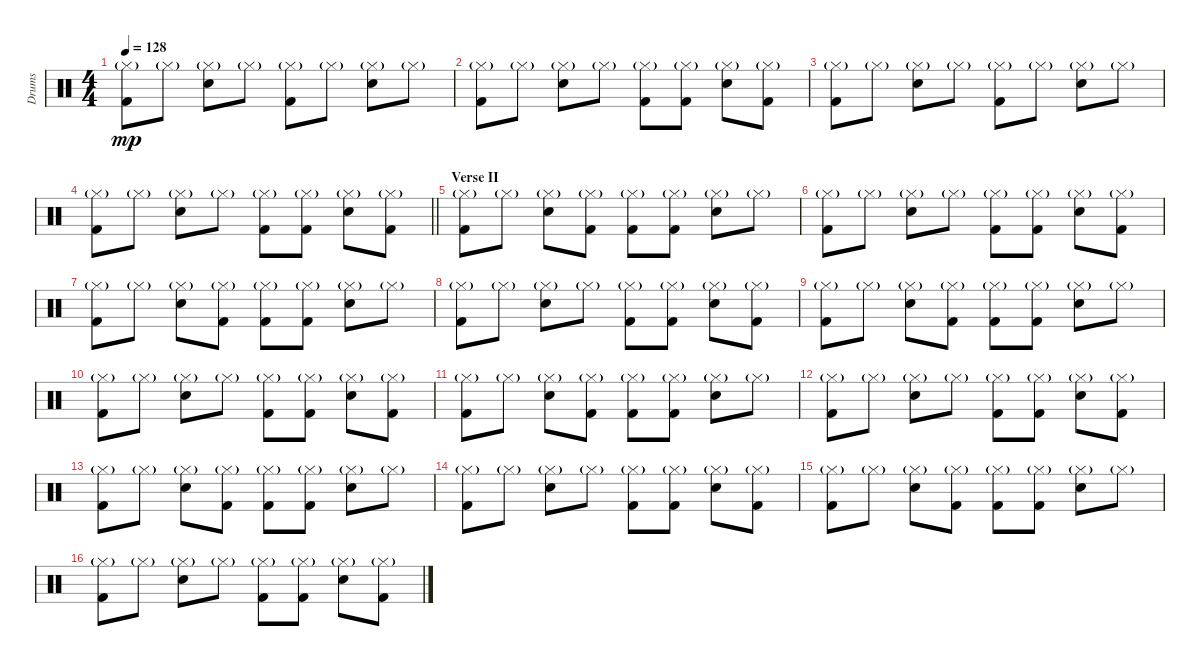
\track ("Drums" "Drums") {instrument percussion}
\staff {score}
\articulation defaults
\ts (4 4)
\tempo 128
\clef neutral
\ks c
("Kick (hit) 2" "Hi-Hat (closed)"{g}).8{dy mp} "Hi-Hat (closed)"{g}.8 ("Snare (hit) 2" "Hi-Hat (closed)"{g}).8 "Hi-Hat (closed)"{g}.8 ("Kick (hit) 2" "Hi-Hat (closed)"{g}).8 "Hi-Hat (closed)"{g}.8 ("Snare (hit) 2" "Hi-Hat (closed)"{g}).8 "Hi-Hat (closed)"{g}.8 |
("Kick (hit) 2" "Hi-Hat (closed)"{g}).8 "Hi-Hat (closed)"{g}.8 ("Snare (hit) 2" "Hi-Hat (closed)"{g}).8 "Hi-Hat (closed)"{g}.8 ("Kick (hit) 2" "Hi-Hat (closed)"{g}).8 ("Kick (hit) 2" "Hi-Hat (closed)"{g}).8 ("Snare (hit) 2" "Hi-Hat (closed)"{g}).8 ("Kick (hit) 2" "Hi-Hat (closed)"{g}).8 |
("Kick (hit) 2" "Hi-Hat (closed)"{g}).8 "Hi-Hat (closed)"{g}.8 ("Snare (hit) 2" "Hi-Hat (closed)"{g}).8 "Hi-Hat (closed)"{g}.8 ("Kick (hit) 2" "Hi-Hat (closed)"{g}).8 "Hi-Hat (closed)"{g}.8 ("Snare (hit) 2" "Hi-Hat (closed)"{g}).8 "Hi-Hat (closed)"{g}.8 |
\barLineRight lightlight
("Kick (hit) 2" "Hi-Hat (closed)"{g}).8 "Hi-Hat (closed)"{g}.8 ("Snare (hit) 2" "Hi-Hat (closed)"{g}).8 "Hi-Hat (closed)"{g}.8 ("Kick (hit) 2" "Hi-Hat (closed)"{g}).8 ("Kick (hit) 2" "Hi-Hat (closed)"{g}).8 ("Snare (hit) 2" "Hi-Hat (closed)"{g}).8 ("Kick (hit) 2" "Hi-Hat (closed)"{g}).8 |
\section ("" "Verse II")
("Kick (hit) 2" "Hi-Hat (closed)"{g}).8 "Hi-Hat (closed)"{g}.8 ("Snare (hit) 2" "Hi-Hat (closed)"{g}).8 ("Kick (hit) 2" "Hi-Hat (closed)"{g}).8 ("Kick (hit) 2" "Hi-Hat (closed)"{g}).8 ("Kick (hit) 2" "Hi-Hat (closed)"{g}).8 ("Snare (hit) 2" "Hi-Hat (closed)"{g}).8 "Hi-Hat (closed)"{g}.8 |
("Kick (hit) 2" "Hi-Hat (closed)"{g}).8 "Hi-Hat (closed)"{g}.8 ("Snare (hit) 2" "Hi-Hat (closed)"{g}).8 "Hi-Hat (closed)"{g}.8 ("Kick (hit) 2" "Hi-Hat (closed)"{g}).8 ("Kick (hit) 2" "Hi-Hat (closed)"{g}).8 ("Snare (hit) 2" "Hi-Hat (closed)"{g}).8 ("Kick (hit) 2" "Hi-Hat (closed)"{g}).8 |
("Kick (hit) 2" "Hi-Hat (closed)"{g}).8 "Hi-Hat (closed)"{g}.8 ("Snare (hit) 2" "Hi-Hat (closed)"{g}).8 ("Kick (hit) 2" "Hi-Hat (closed)"{g}).8 ("Kick (hit) 2" "Hi-Hat (closed)"{g}).8 ("Kick (hit) 2" "Hi-Hat (closed)"{g}).8 ("Snare (hit) 2" "Hi-Hat (closed)"{g}).8 "Hi-Hat (closed)"{g}.8 |
("Kick (hit) 2" "Hi-Hat (closed)"{g}).8 "Hi-Hat (closed)"{g}.8 ("Snare (hit) 2" "Hi-Hat (closed)"{g}).8 "Hi-Hat (closed)"{g}.8 ("Kick (hit) 2" "Hi-Hat (closed)"{g}).8 ("Kick (hit) 2" "Hi-Hat (closed)"{g}).8 ("Snare (hit) 2" "Hi-Hat (closed)"{g}).8 ("Kick (hit) 2" "Hi-Hat (closed)"{g}).8 |
("Kick (hit) 2" "Hi-Hat (closed)"{g}).8 "Hi-Hat (closed)"{g}.8 ("Snare (hit) 2" "Hi-Hat (closed)"{g}).8 ("Kick (hit) 2" "Hi-Hat (closed)"{g}).8 ("Kick (hit) 2" "Hi-Hat (closed)"{g}).8 ("Kick (hit) 2" "Hi-Hat (closed)"{g}).8 ("Snare (hit) 2" "Hi-Hat (closed)"{g}).8 "Hi-Hat (closed)"{g}.8 |
("Kick (hit) 2" "Hi-Hat (closed)"{g}).8 "Hi-Hat (closed)"{g}.8 ("Snare (hit) 2" "Hi-Hat (closed)"{g}).8 "Hi-Hat (closed)"{g}.8 ("Kick (hit) 2" "Hi-Hat (closed)"{g}).8 ("Kick (hit) 2" "Hi-Hat (closed)"{g}).8 ("Snare (hit) 2" "Hi-Hat (closed)"{g}).8 ("Kick (hit) 2" "Hi-Hat (closed)"{g}).8 |
("Kick (hit) 2" "Hi-Hat (closed)"{g}).8 "Hi-Hat (closed)"{g}.8 ("Snare (hit) 2" "Hi-Hat (closed)"{g}).8 ("Kick (hit) 2" "Hi-Hat (closed)"{g}).8 ("Kick (hit) 2" "Hi-Hat (closed)"{g}).8 ("Kick (hit) 2" "Hi-Hat (closed)"{g}).8 ("Snare (hit) 2" "Hi-Hat (closed)"{g}).8 "Hi-Hat (closed)"{g}.8 |
("Kick (hit) 2" "Hi-Hat (closed)"{g}).8 "Hi-Hat (closed)"{g}.8 ("Snare (hit) 2" "Hi-Hat (closed)"{g}).8 "Hi-Hat (closed)"{g}.8 ("Kick (hit) 2" "Hi-Hat (closed)"{g}).8 ("Kick (hit) 2" "Hi-Hat (closed)"{g}).8 ("Snare (hit) 2" "Hi-Hat (closed)"{g}).8 ("Kick (hit) 2" "Hi-Hat (closed)"{g}).8 |
("Kick (hit) 2" "Hi-Hat (closed)"{g}).8 "Hi-Hat (closed)"{g}.8 ("Snare (hit) 2" "Hi-Hat (closed)"{g}).8 ("Kick (hit) 2" "Hi-Hat (closed)"{g}).8 ("Kick (hit) 2" "Hi-Hat (closed)"{g}).8 ("Kick (hit) 2" "Hi-Hat (closed)"{g}).8 ("Snare (hit) 2" "Hi-Hat (closed)"{g}).8 "Hi-Hat (closed)"{g}.8 |
("Kick (hit) 2" "Hi-Hat (closed)"{g}).8 "Hi-Hat (closed)"{g}.8 ("Snare (hit) 2" "Hi-Hat (closed)"{g}).8 "Hi-Hat (closed)"{g}.8 ("Kick (hit) 2" "Hi-Hat (closed)"{g}).8 ("Kick (hit) 2" "Hi-Hat (closed)"{g}).8 ("Snare (hit) 2" "Hi-Hat (closed)"{g}).8 ("Kick (hit) 2" "Hi-Hat (closed)"{g}).8 |
("Kick (hit) 2" "Hi-Hat (closed)"{g}).8 "Hi-Hat (closed)"{g}.8 ("Snare (hit) 2" "Hi-Hat (closed)"{g}).8 ("Kick (hit) 2" "Hi-Hat (closed)"{g}).8 ("Kick (hit) 2" "Hi-Hat (closed)"{g}).8 ("Kick (hit) 2" "Hi-Hat (closed)"{g}).8 ("Snare (hit) 2" "Hi-Hat (closed)"{g}).8 "Hi-Hat (closed)"{g}.8 |
("Kick (hit) 2" "Hi-Hat (closed)"{g}).8 "Hi-Hat (closed)"{g}.8 ("Snare (hit) 2" "Hi-Hat (closed)"{g}).8 "Hi-Hat (closed)"{g}.8 ("Kick (hit) 2" "Hi-Hat (closed)"{g}).8 ("Kick (hit) 2" "Hi-Hat (closed)"{g}).8 ("Snare (hit) 2" "Hi-Hat (closed)"{g}).8 ("Kick (hit) 2" "Hi-Hat (closed)"{g}).8
